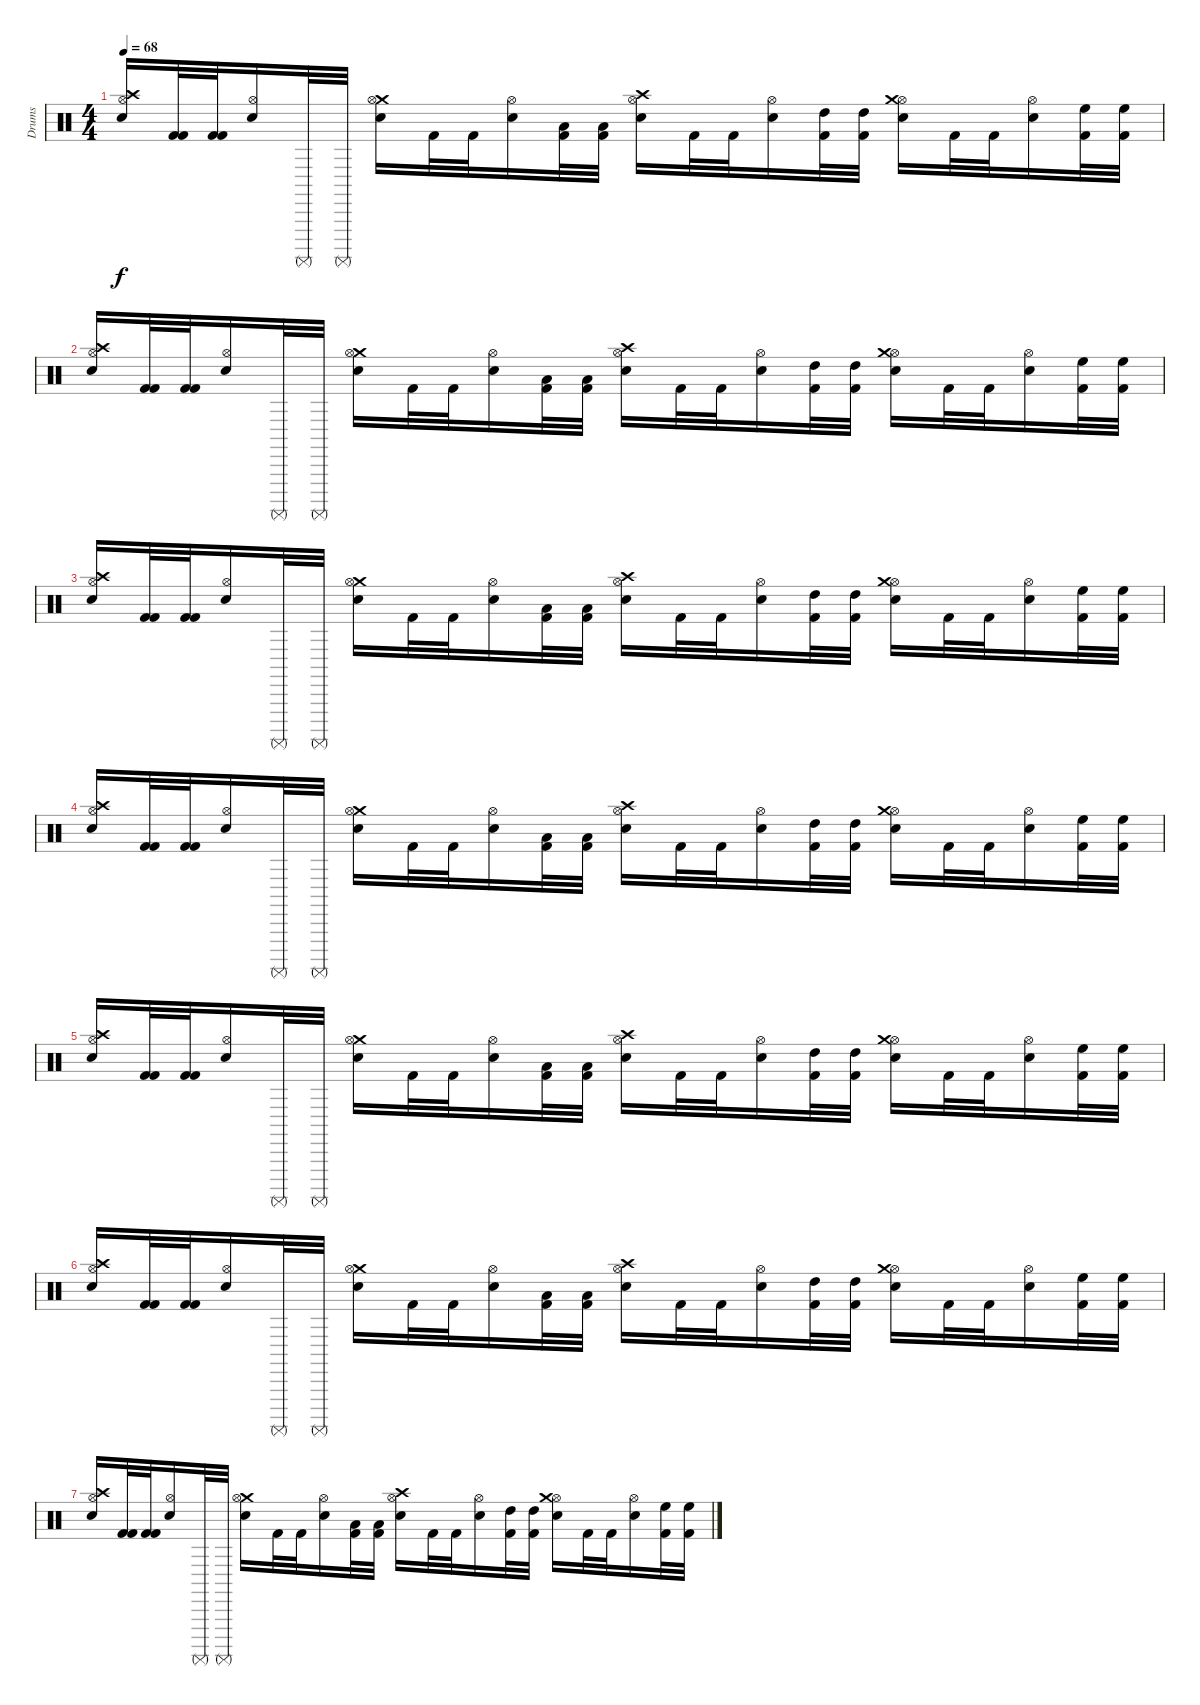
\track ("Drums" "Drums") {instrument percussion}
\staff {score}
\articulation defaults
\ts (4 4)
\tempo 68
\clef neutral
\ks c
("Snare (hit) 2" "Crash high (hit)" "Hi-Hat (open)").16{dy f} ("Kick (hit) 2" "Kick (hit) 2").32 ("Kick (hit) 2" "Kick (hit) 2").32 ("Snare (hit) 2" "Hi-Hat (open)").16 "Surdo (mute)".32 "Surdo (mute)".32 ("Snare (hit) 2" "Crash medium (hit)" "Hi-Hat (open)").16 "Kick (hit) 2".32 "Kick (hit) 2".32 ("Snare (hit) 2" "Hi-Hat (open)").16 ("Kick (hit) 2" "Low Tom (hit)").32 ("Kick (hit) 2" "Low Tom (hit)").32 ("Snare (hit) 2" "Hi-Hat (open)" "Crash high (hit)").16 "Kick (hit) 2".32 "Kick (hit) 2".32 ("Snare (hit) 2" "Hi-Hat (open)").16 ("Kick (hit) 2" "High Tom (hit)").32 ("Kick (hit) 2" "High Tom (hit)").32 ("Snare (hit) 2" "Hi-Hat (open)" "Crash medium (hit)").16 "Kick (hit) 2".32 "Kick (hit) 2".32 ("Snare (hit) 2" "Hi-Hat (open)").16 ("Kick (hit) 2" "High Floor Tom (hit)").32 ("Kick (hit) 2" "High Floor Tom (hit)").32 |
("Snare (hit) 2" "Crash high (hit)" "Hi-Hat (open)").16 ("Kick (hit) 2" "Kick (hit) 2").32 ("Kick (hit) 2" "Kick (hit) 2").32 ("Snare (hit) 2" "Hi-Hat (open)").16 "Surdo (mute)".32 "Surdo (mute)".32 ("Snare (hit) 2" "Crash medium (hit)" "Hi-Hat (open)").16 "Kick (hit) 2".32 "Kick (hit) 2".32 ("Snare (hit) 2" "Hi-Hat (open)").16 ("Kick (hit) 2" "Low Tom (hit)").32 ("Kick (hit) 2" "Low Tom (hit)").32 ("Snare (hit) 2" "Hi-Hat (open)" "Crash high (hit)").16 "Kick (hit) 2".32 "Kick (hit) 2".32 ("Snare (hit) 2" "Hi-Hat (open)").16 ("Kick (hit) 2" "High Tom (hit)").32 ("Kick (hit) 2" "High Tom (hit)").32 ("Snare (hit) 2" "Hi-Hat (open)" "Crash medium (hit)").16 "Kick (hit) 2".32 "Kick (hit) 2".32 ("Snare (hit) 2" "Hi-Hat (open)").16 ("Kick (hit) 2" "High Floor Tom (hit)").32 ("Kick (hit) 2" "High Floor Tom (hit)").32 |
("Snare (hit) 2" "Crash high (hit)" "Hi-Hat (open)").16 ("Kick (hit) 2" "Kick (hit) 2").32 ("Kick (hit) 2" "Kick (hit) 2").32 ("Snare (hit) 2" "Hi-Hat (open)").16 "Surdo (mute)".32 "Surdo (mute)".32 ("Snare (hit) 2" "Crash medium (hit)" "Hi-Hat (open)").16 "Kick (hit) 2".32 "Kick (hit) 2".32 ("Snare (hit) 2" "Hi-Hat (open)").16 ("Kick (hit) 2" "Low Tom (hit)").32 ("Kick (hit) 2" "Low Tom (hit)").32 ("Snare (hit) 2" "Hi-Hat (open)" "Crash high (hit)").16 "Kick (hit) 2".32 "Kick (hit) 2".32 ("Snare (hit) 2" "Hi-Hat (open)").16 ("Kick (hit) 2" "High Tom (hit)").32 ("Kick (hit) 2" "High Tom (hit)").32 ("Snare (hit) 2" "Hi-Hat (open)" "Crash medium (hit)").16 "Kick (hit) 2".32 "Kick (hit) 2".32 ("Snare (hit) 2" "Hi-Hat (open)").16 ("Kick (hit) 2" "High Floor Tom (hit)").32 ("Kick (hit) 2" "High Floor Tom (hit)").32 |
("Snare (hit) 2" "Crash high (hit)" "Hi-Hat (open)").16 ("Kick (hit) 2" "Kick (hit) 2").32 ("Kick (hit) 2" "Kick (hit) 2").32 ("Snare (hit) 2" "Hi-Hat (open)").16 "Surdo (mute)".32 "Surdo (mute)".32 ("Snare (hit) 2" "Crash medium (hit)" "Hi-Hat (open)").16 "Kick (hit) 2".32 "Kick (hit) 2".32 ("Snare (hit) 2" "Hi-Hat (open)").16 ("Kick (hit) 2" "Low Tom (hit)").32 ("Kick (hit) 2" "Low Tom (hit)").32 ("Snare (hit) 2" "Hi-Hat (open)" "Crash high (hit)").16 "Kick (hit) 2".32 "Kick (hit) 2".32 ("Snare (hit) 2" "Hi-Hat (open)").16 ("Kick (hit) 2" "High Tom (hit)").32 ("Kick (hit) 2" "High Tom (hit)").32 ("Snare (hit) 2" "Hi-Hat (open)" "Crash medium (hit)").16 "Kick (hit) 2".32 "Kick (hit) 2".32 ("Snare (hit) 2" "Hi-Hat (open)").16 ("Kick (hit) 2" "High Floor Tom (hit)").32 ("Kick (hit) 2" "High Floor Tom (hit)").32 |
("Snare (hit) 2" "Crash high (hit)" "Hi-Hat (open)").16 ("Kick (hit) 2" "Kick (hit) 2").32 ("Kick (hit) 2" "Kick (hit) 2").32 ("Snare (hit) 2" "Hi-Hat (open)").16 "Surdo (mute)".32 "Surdo (mute)".32 ("Snare (hit) 2" "Crash medium (hit)" "Hi-Hat (open)").16 "Kick (hit) 2".32 "Kick (hit) 2".32 ("Snare (hit) 2" "Hi-Hat (open)").16 ("Kick (hit) 2" "Low Tom (hit)").32 ("Kick (hit) 2" "Low Tom (hit)").32 ("Snare (hit) 2" "Hi-Hat (open)" "Crash high (hit)").16 "Kick (hit) 2".32 "Kick (hit) 2".32 ("Snare (hit) 2" "Hi-Hat (open)").16 ("Kick (hit) 2" "High Tom (hit)").32 ("Kick (hit) 2" "High Tom (hit)").32 ("Snare (hit) 2" "Hi-Hat (open)" "Crash medium (hit)").16 "Kick (hit) 2".32 "Kick (hit) 2".32 ("Snare (hit) 2" "Hi-Hat (open)").16 ("Kick (hit) 2" "High Floor Tom (hit)").32 ("Kick (hit) 2" "High Floor Tom (hit)").32 |
("Snare (hit) 2" "Crash high (hit)" "Hi-Hat (open)").16 ("Kick (hit) 2" "Kick (hit) 2").32 ("Kick (hit) 2" "Kick (hit) 2").32 ("Snare (hit) 2" "Hi-Hat (open)").16 "Surdo (mute)".32 "Surdo (mute)".32 ("Snare (hit) 2" "Crash medium (hit)" "Hi-Hat (open)").16 "Kick (hit) 2".32 "Kick (hit) 2".32 ("Snare (hit) 2" "Hi-Hat (open)").16 ("Kick (hit) 2" "Low Tom (hit)").32 ("Kick (hit) 2" "Low Tom (hit)").32 ("Snare (hit) 2" "Hi-Hat (open)" "Crash high (hit)").16 "Kick (hit) 2".32 "Kick (hit) 2".32 ("Snare (hit) 2" "Hi-Hat (open)").16 ("Kick (hit) 2" "High Tom (hit)").32 ("Kick (hit) 2" "High Tom (hit)").32 ("Snare (hit) 2" "Hi-Hat (open)" "Crash medium (hit)").16 "Kick (hit) 2".32 "Kick (hit) 2".32 ("Snare (hit) 2" "Hi-Hat (open)").16 ("Kick (hit) 2" "High Floor Tom (hit)").32 ("Kick (hit) 2" "High Floor Tom (hit)").32 |
("Snare (hit) 2" "Crash high (hit)" "Hi-Hat (open)").16 ("Kick (hit) 2" "Kick (hit) 2").32 ("Kick (hit) 2" "Kick (hit) 2").32 ("Snare (hit) 2" "Hi-Hat (open)").16 "Surdo (mute)".32 "Surdo (mute)".32 ("Snare (hit) 2" "Crash medium (hit)" "Hi-Hat (open)").16 "Kick (hit) 2".32 "Kick (hit) 2".32 ("Snare (hit) 2" "Hi-Hat (open)").16 ("Kick (hit) 2" "Low Tom (hit)").32 ("Kick (hit) 2" "Low Tom (hit)").32 ("Snare (hit) 2" "Hi-Hat (open)" "Crash high (hit)").16 "Kick (hit) 2".32 "Kick (hit) 2".32 ("Snare (hit) 2" "Hi-Hat (open)").16 ("Kick (hit) 2" "High Tom (hit)").32 ("Kick (hit) 2" "High Tom (hit)").32 ("Snare (hit) 2" "Hi-Hat (open)" "Crash medium (hit)").16 "Kick (hit) 2".32 "Kick (hit) 2".32 ("Snare (hit) 2" "Hi-Hat (open)").16 ("Kick (hit) 2" "High Floor Tom (hit)").32 ("Kick (hit) 2" "High Floor Tom (hit)").32
